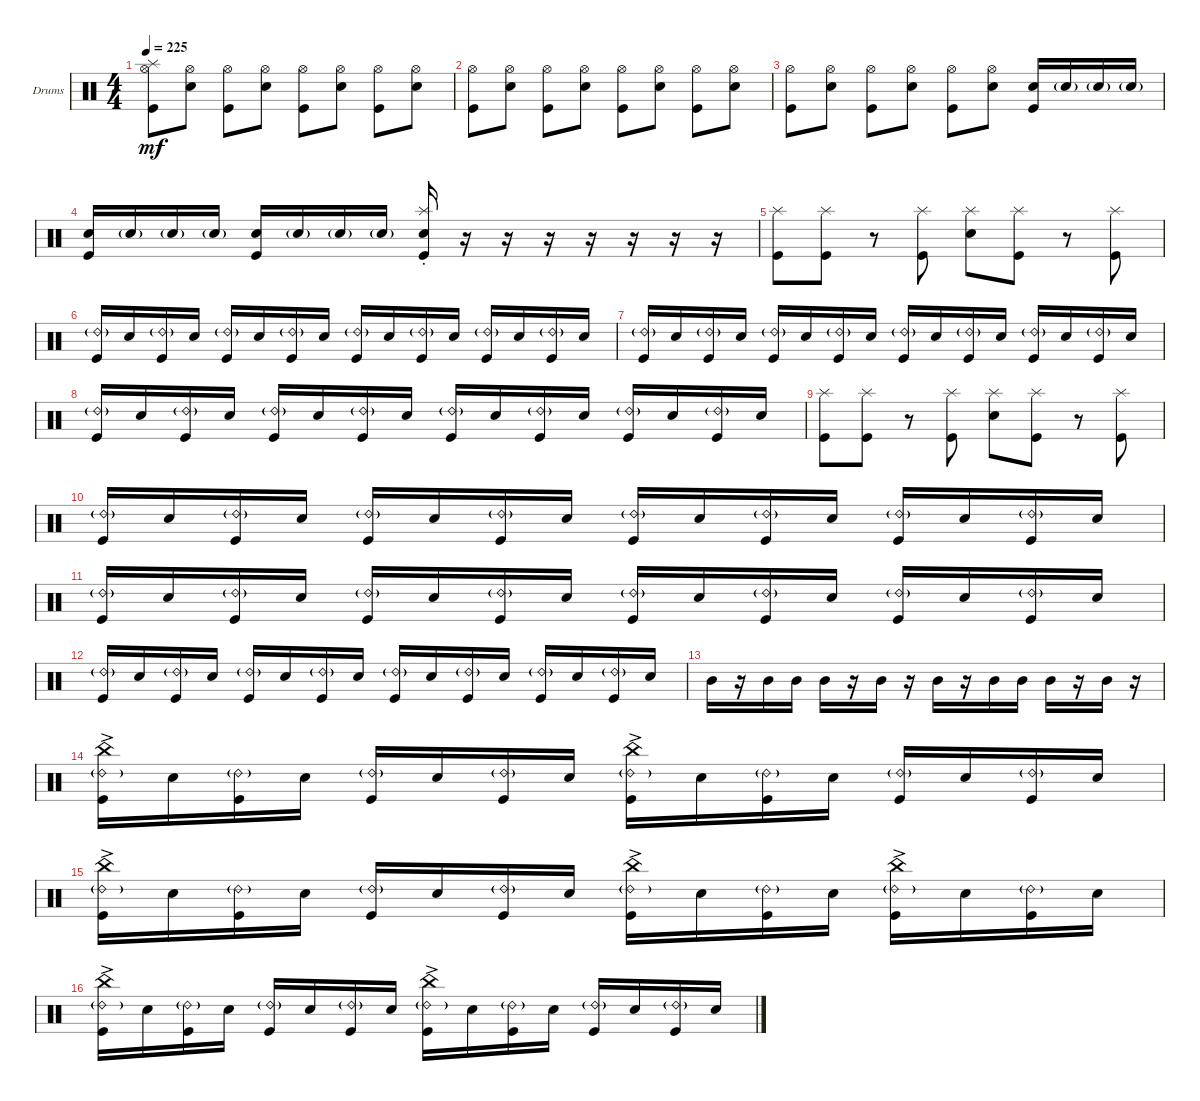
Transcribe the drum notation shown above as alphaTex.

\bracketExtendMode groupsimilarinstruments
\firstSystemTrackNameOrientation horizontal
\otherSystemsTrackNameOrientation horizontal
\track ("Drumkit" "Drums") {instrument percussion}
\staff {score}
\articulation defaults
\ts (4 4)
\tempo 225
\clef neutral
\ks c
("Kick (hit)" "Hi-Hat (open)" "Splash (hit)").8{dy mf} ("Snare (hit) 2" "Hi-Hat (open)").8 ("Kick (hit)" "Hi-Hat (open)").8 ("Snare (hit) 2" "Hi-Hat (open)").8 ("Kick (hit)" "Hi-Hat (open)").8 ("Snare (hit) 2" "Hi-Hat (open)").8 ("Kick (hit)" "Hi-Hat (open)").8 ("Snare (hit) 2" "Hi-Hat (open)").8 |
("Kick (hit)" "Hi-Hat (open)").8 ("Snare (hit) 2" "Hi-Hat (open)").8 ("Kick (hit)" "Hi-Hat (open)").8 ("Snare (hit) 2" "Hi-Hat (open)").8 ("Kick (hit)" "Hi-Hat (open)").8 ("Snare (hit) 2" "Hi-Hat (open)").8 ("Kick (hit)" "Hi-Hat (open)").8 ("Snare (hit) 2" "Hi-Hat (open)").8 |
("Kick (hit)" "Hi-Hat (open)").8 ("Snare (hit) 2" "Hi-Hat (open)").8 ("Kick (hit)" "Hi-Hat (open)").8 ("Snare (hit) 2" "Hi-Hat (open)").8 ("Kick (hit)" "Hi-Hat (open)").8 ("Snare (hit) 2" "Hi-Hat (open)").8 ("Snare (hit) 2" "Kick (hit)").16 "Snare (hit) 2"{g}.16 "Snare (hit) 2"{g}.16 "Snare (hit) 2"{g}.16 |
("Snare (hit) 2" "Kick (hit)").16 "Snare (hit) 2"{g}.16 "Snare (hit) 2"{g}.16 "Snare (hit) 2"{g}.16 ("Snare (hit) 2" "Kick (hit)").16 "Snare (hit) 2"{g}.16 "Snare (hit) 2"{g}.16 "Snare (hit) 2"{g}.16 ("Snare (hit) 2" "Kick (hit)" "Splash (hit)"{st}).16 r.16 r.16 r.16 r.16 r.16 r.16 r.16 |
("Kick (hit)" "Splash (hit)").8 ("Kick (hit)" "Splash (hit)").8 r.8 ("Kick (hit)" "Splash (hit)").8 ("Snare (hit) 2" "Splash (hit)").8 ("Kick (hit)" "Splash (hit)").8 r.8 ("Kick (hit)" "Splash (hit)").8 |
("Kick (hit)" "Ride (bell) 2"{g}).16 "Snare (hit) 2".16 ("Kick (hit)" "Ride (bell) 2"{g}).16 "Snare (hit) 2".16 ("Kick (hit)" "Ride (bell) 2"{g}).16 "Snare (hit) 2".16 ("Kick (hit)" "Ride (bell) 2"{g}).16 "Snare (hit) 2".16 ("Kick (hit)" "Ride (bell) 2"{g}).16 "Snare (hit) 2".16 ("Kick (hit)" "Ride (bell) 2"{g}).16 "Snare (hit) 2".16 ("Kick (hit)" "Ride (bell) 2"{g}).16 "Snare (hit) 2".16 ("Kick (hit)" "Ride (bell) 2"{g}).16 "Snare (hit) 2".16 |
("Kick (hit)" "Ride (bell) 2"{g}).16 "Snare (hit) 2".16 ("Kick (hit)" "Ride (bell) 2"{g}).16 "Snare (hit) 2".16 ("Kick (hit)" "Ride (bell) 2"{g}).16 "Snare (hit) 2".16 ("Kick (hit)" "Ride (bell) 2"{g}).16 "Snare (hit) 2".16 ("Kick (hit)" "Ride (bell) 2"{g}).16 "Snare (hit) 2".16 ("Kick (hit)" "Ride (bell) 2"{g}).16 "Snare (hit) 2".16 ("Kick (hit)" "Ride (bell) 2"{g}).16 "Snare (hit) 2".16 ("Kick (hit)" "Ride (bell) 2"{g}).16 "Snare (hit) 2".16 |
("Kick (hit)" "Ride (bell) 2"{g}).16 "Snare (hit) 2".16 ("Kick (hit)" "Ride (bell) 2"{g}).16 "Snare (hit) 2".16 ("Kick (hit)" "Ride (bell) 2"{g}).16 "Snare (hit) 2".16 ("Kick (hit)" "Ride (bell) 2"{g}).16 "Snare (hit) 2".16 ("Kick (hit)" "Ride (bell) 2"{g}).16 "Snare (hit) 2".16 ("Kick (hit)" "Ride (bell) 2"{g}).16 "Snare (hit) 2".16 ("Kick (hit)" "Ride (bell) 2"{g}).16 "Snare (hit) 2".16 ("Kick (hit)" "Ride (bell) 2"{g}).16 "Snare (hit) 2".16 |
("Kick (hit)" "Splash (hit)").8 ("Kick (hit)" "Splash (hit)").8 r.8 ("Kick (hit)" "Splash (hit)").8 ("Snare (hit) 2" "Splash (hit)").8 ("Kick (hit)" "Splash (hit)").8 r.8 ("Kick (hit)" "Splash (hit)").8 |
("Kick (hit)" "Ride (bell) 2"{g}).16 "Snare (hit) 2".16 ("Kick (hit)" "Ride (bell) 2"{g}).16 "Snare (hit) 2".16 ("Kick (hit)" "Ride (bell) 2"{g}).16 "Snare (hit) 2".16 ("Kick (hit)" "Ride (bell) 2"{g}).16 "Snare (hit) 2".16 ("Kick (hit)" "Ride (bell) 2"{g}).16 "Snare (hit) 2".16 ("Kick (hit)" "Ride (bell) 2"{g}).16 "Snare (hit) 2".16 ("Kick (hit)" "Ride (bell) 2"{g}).16 "Snare (hit) 2".16 ("Kick (hit)" "Ride (bell) 2"{g}).16 "Snare (hit) 2".16 |
("Kick (hit)" "Ride (bell) 2"{g}).16 "Snare (hit) 2".16 ("Kick (hit)" "Ride (bell) 2"{g}).16 "Snare (hit) 2".16 ("Kick (hit)" "Ride (bell) 2"{g}).16 "Snare (hit) 2".16 ("Kick (hit)" "Ride (bell) 2"{g}).16 "Snare (hit) 2".16 ("Kick (hit)" "Ride (bell) 2"{g}).16 "Snare (hit) 2".16 ("Kick (hit)" "Ride (bell) 2"{g}).16 "Snare (hit) 2".16 ("Kick (hit)" "Ride (bell) 2"{g}).16 "Snare (hit) 2".16 ("Kick (hit)" "Ride (bell) 2"{g}).16 "Snare (hit) 2".16 |
("Kick (hit)" "Ride (bell) 2"{g}).16 "Snare (hit) 2".16 ("Kick (hit)" "Ride (bell) 2"{g}).16 "Snare (hit) 2".16 ("Kick (hit)" "Ride (bell) 2"{g}).16 "Snare (hit) 2".16 ("Kick (hit)" "Ride (bell) 2"{g}).16 "Snare (hit) 2".16 ("Kick (hit)" "Ride (bell) 2"{g}).16 "Snare (hit) 2".16 ("Kick (hit)" "Ride (bell) 2"{g}).16 "Snare (hit) 2".16 ("Kick (hit)" "Ride (bell) 2"{g}).16 "Snare (hit) 2".16 ("Kick (hit)" "Ride (bell) 2"{g}).16 "Snare (hit) 2".16 |
"Mid Tom (hit)".16 r.16 "Mid Tom (hit)".16 "Mid Tom (hit)".16 "Mid Tom (hit)".16 r.16 "Mid Tom (hit)".16 r.16 "Mid Tom (hit)".16 r.16 "Mid Tom (hit)".16 "Mid Tom (hit)".16 "Mid Tom (hit)".16 r.16 "Mid Tom (hit)".16 r.16 |
("Kick (hit)" "Ride (bell) 2"{g} "China (hit)"{ac}).16 "Snare (hit) 2".16 ("Kick (hit)" "Ride (bell) 2"{g}).16 "Snare (hit) 2".16 ("Kick (hit)" "Ride (bell) 2"{g}).16 "Snare (hit) 2".16 ("Kick (hit)" "Ride (bell) 2"{g}).16 "Snare (hit) 2".16 ("Kick (hit)" "Ride (bell) 2"{g} "China (hit)"{ac}).16 "Snare (hit) 2".16 ("Kick (hit)" "Ride (bell) 2"{g}).16 "Snare (hit) 2".16 ("Kick (hit)" "Ride (bell) 2"{g}).16 "Snare (hit) 2".16 ("Kick (hit)" "Ride (bell) 2"{g}).16 "Snare (hit) 2".16 |
("Kick (hit)" "Ride (bell) 2"{g} "China (hit)"{ac}).16 "Snare (hit) 2".16 ("Kick (hit)" "Ride (bell) 2"{g}).16 "Snare (hit) 2".16 ("Kick (hit)" "Ride (bell) 2"{g}).16 "Snare (hit) 2".16 ("Kick (hit)" "Ride (bell) 2"{g}).16 "Snare (hit) 2".16 ("Kick (hit)" "Ride (bell) 2"{g} "China (hit)"{ac}).16 "Snare (hit) 2".16 ("Kick (hit)" "Ride (bell) 2"{g}).16 "Snare (hit) 2".16 ("Kick (hit)" "Ride (bell) 2"{g} "China (hit)"{ac}).16 "Snare (hit) 2".16 ("Kick (hit)" "Ride (bell) 2"{g}).16 "Snare (hit) 2".16 |
("Kick (hit)" "Ride (bell) 2"{g} "China (hit)"{ac}).16 "Snare (hit) 2".16 ("Kick (hit)" "Ride (bell) 2"{g}).16 "Snare (hit) 2".16 ("Kick (hit)" "Ride (bell) 2"{g}).16 "Snare (hit) 2".16 ("Kick (hit)" "Ride (bell) 2"{g}).16 "Snare (hit) 2".16 ("Kick (hit)" "Ride (bell) 2"{g} "China (hit)"{ac}).16 "Snare (hit) 2".16 ("Kick (hit)" "Ride (bell) 2"{g}).16 "Snare (hit) 2".16 ("Kick (hit)" "Ride (bell) 2"{g}).16 "Snare (hit) 2".16 ("Kick (hit)" "Ride (bell) 2"{g}).16 "Snare (hit) 2".16
